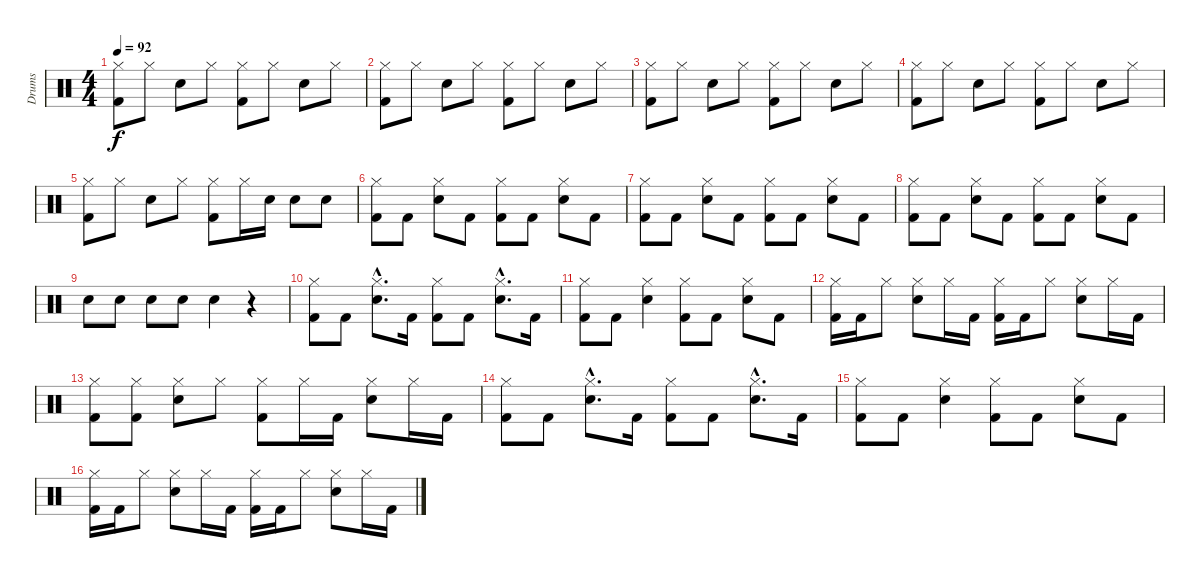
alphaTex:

\track ("Drums" "Drums") {instrument percussion}
\staff {score}
\articulation defaults
\ts (4 4)
\tempo 92
\clef neutral
\ks c
("Hi-Hat (closed)" "Kick (hit) 2").8{dy f} "Hi-Hat (closed)".8 "Electric Snare (hit)".8 "Hi-Hat (closed)".8 ("Hi-Hat (closed)" "Kick (hit) 2").8 "Hi-Hat (closed)".8 "Electric Snare (hit)".8 "Hi-Hat (closed)".8 |
("Hi-Hat (closed)" "Kick (hit) 2").8 "Hi-Hat (closed)".8 "Electric Snare (hit)".8 "Hi-Hat (closed)".8 ("Hi-Hat (closed)" "Kick (hit) 2").8 "Hi-Hat (closed)".8 "Electric Snare (hit)".8 "Hi-Hat (closed)".8 |
("Hi-Hat (closed)" "Kick (hit) 2").8 "Hi-Hat (closed)".8 "Electric Snare (hit)".8 "Hi-Hat (closed)".8 ("Hi-Hat (closed)" "Kick (hit) 2").8 "Hi-Hat (closed)".8 "Electric Snare (hit)".8 "Hi-Hat (closed)".8 |
("Hi-Hat (closed)" "Kick (hit) 2").8 "Hi-Hat (closed)".8 "Electric Snare (hit)".8 "Hi-Hat (closed)".8 ("Hi-Hat (closed)" "Kick (hit) 2").8 "Hi-Hat (closed)".8 "Electric Snare (hit)".8 "Hi-Hat (closed)".8 |
("Hi-Hat (closed)" "Kick (hit) 2").8 "Hi-Hat (closed)".8 "Electric Snare (hit)".8 "Hi-Hat (closed)".8 ("Hi-Hat (closed)" "Kick (hit) 2").8 "Hi-Hat (closed)".16 "Electric Snare (hit)".16 "Electric Snare (hit)".8 "Electric Snare (hit)".8 |
("Hi-Hat (closed)" "Kick (hit) 2").8 "Kick (hit) 2".8 ("Hi-Hat (closed)" "Electric Snare (hit)").8 "Kick (hit) 2".8 ("Hi-Hat (closed)" "Kick (hit) 2").8 "Kick (hit) 2".8 ("Hi-Hat (closed)" "Electric Snare (hit)").8 "Kick (hit) 2".8 |
("Hi-Hat (closed)" "Kick (hit) 2").8 "Kick (hit) 2".8 ("Hi-Hat (closed)" "Electric Snare (hit)").8 "Kick (hit) 2".8 ("Hi-Hat (closed)" "Kick (hit) 2").8 "Kick (hit) 2".8 ("Hi-Hat (closed)" "Electric Snare (hit)").8 "Kick (hit) 2".8 |
("Hi-Hat (closed)" "Kick (hit) 2").8 "Kick (hit) 2".8 ("Hi-Hat (closed)" "Electric Snare (hit)").8 "Kick (hit) 2".8 ("Hi-Hat (closed)" "Kick (hit) 2").8 "Kick (hit) 2".8 ("Hi-Hat (closed)" "Electric Snare (hit)").8 "Kick (hit) 2".8 |
"Electric Snare (hit)".8 "Electric Snare (hit)".8 "Electric Snare (hit)".8 "Electric Snare (hit)".8 "Electric Snare (hit)".4 r.4 |
("Hi-Hat (closed)" "Kick (hit) 2").8 "Kick (hit) 2".8 ("Hi-Hat (closed)"{hac} "Electric Snare (hit)"{hac}).8{d} "Kick (hit) 2".16 ("Hi-Hat (closed)" "Kick (hit) 2").8 "Kick (hit) 2".8 ("Hi-Hat (closed)"{hac} "Electric Snare (hit)"{hac}).8{d} "Kick (hit) 2".16 |
("Hi-Hat (closed)" "Kick (hit) 2").8 "Kick (hit) 2".8 ("Hi-Hat (closed)" "Electric Snare (hit)").4 ("Hi-Hat (closed)" "Kick (hit) 2").8 "Kick (hit) 2".8 ("Hi-Hat (closed)" "Electric Snare (hit)").8 "Kick (hit) 2".8 |
("Hi-Hat (closed)" "Kick (hit) 2").16 "Kick (hit) 2".16 "Hi-Hat (closed)".8 ("Hi-Hat (closed)" "Electric Snare (hit)").8 "Hi-Hat (closed)".16 "Kick (hit) 2".16 ("Hi-Hat (closed)" "Kick (hit) 2").16 "Kick (hit) 2".16 "Hi-Hat (closed)".8 ("Hi-Hat (closed)" "Electric Snare (hit)").8 "Hi-Hat (closed)".16 "Kick (hit) 2".16 |
("Hi-Hat (closed)" "Kick (hit) 2").8 ("Hi-Hat (closed)" "Kick (hit) 2").8 ("Hi-Hat (closed)" "Electric Snare (hit)").8 "Hi-Hat (closed)".8 ("Hi-Hat (closed)" "Kick (hit) 2").8 "Hi-Hat (closed)".16 "Kick (hit) 2".16 ("Hi-Hat (closed)" "Electric Snare (hit)").8 "Hi-Hat (closed)".16 "Kick (hit) 2".16 |
("Hi-Hat (closed)" "Kick (hit) 2").8 "Kick (hit) 2".8 ("Hi-Hat (closed)"{hac} "Electric Snare (hit)"{hac}).8{d} "Kick (hit) 2".16 ("Hi-Hat (closed)" "Kick (hit) 2").8 "Kick (hit) 2".8 ("Hi-Hat (closed)"{hac} "Electric Snare (hit)"{hac}).8{d} "Kick (hit) 2".16 |
("Hi-Hat (closed)" "Kick (hit) 2").8 "Kick (hit) 2".8 ("Hi-Hat (closed)" "Electric Snare (hit)").4 ("Hi-Hat (closed)" "Kick (hit) 2").8 "Kick (hit) 2".8 ("Hi-Hat (closed)" "Electric Snare (hit)").8 "Kick (hit) 2".8 |
("Hi-Hat (closed)" "Kick (hit) 2").16 "Kick (hit) 2".16 "Hi-Hat (closed)".8 ("Hi-Hat (closed)" "Electric Snare (hit)").8 "Hi-Hat (closed)".16 "Kick (hit) 2".16 ("Hi-Hat (closed)" "Kick (hit) 2").16 "Kick (hit) 2".16 "Hi-Hat (closed)".8 ("Hi-Hat (closed)" "Electric Snare (hit)").8 "Hi-Hat (closed)".16 "Kick (hit) 2".16
